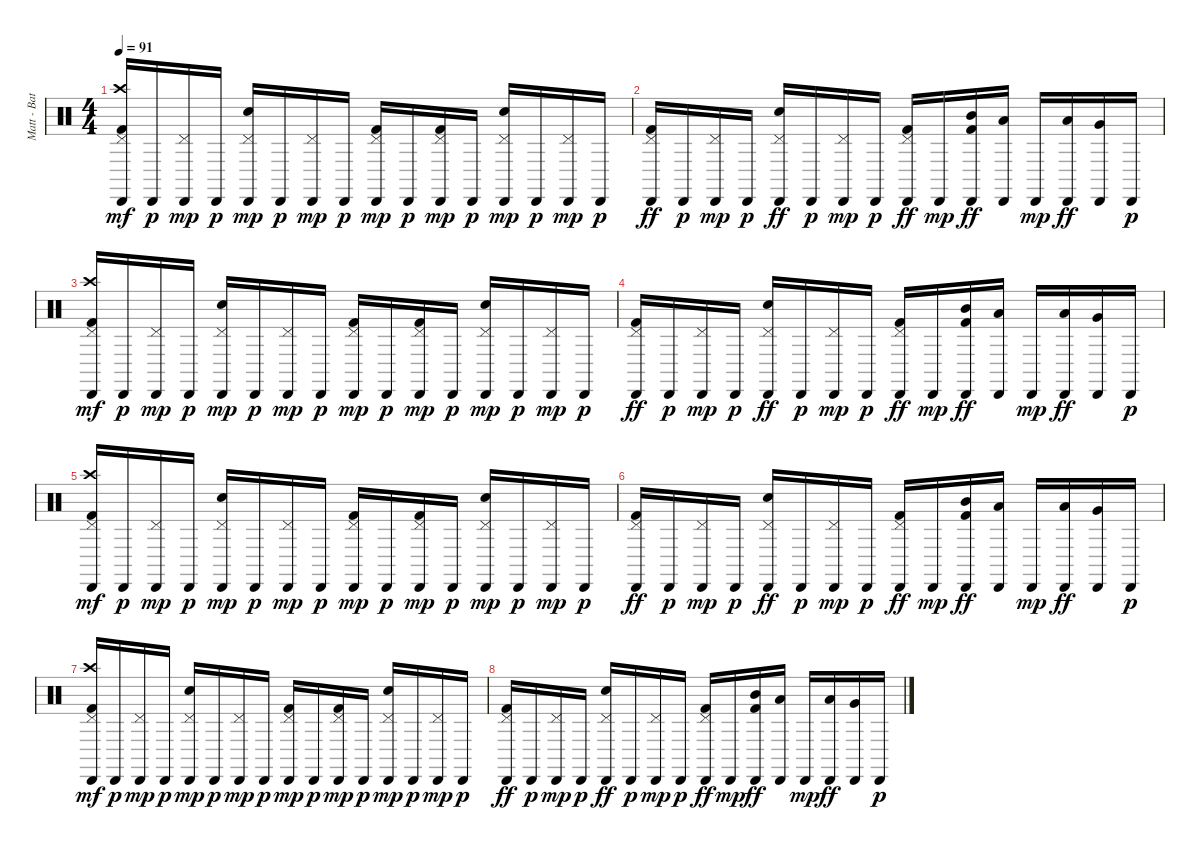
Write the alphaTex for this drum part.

\track ("Matt - Batería" "Matt - Bat") {instrument percussion}
\staff {score}
\articulation defaults
\ts (4 4)
\tempo 91
\clef neutral
\ks c
("Cabasa (hit)" "Crash high (hit)" "Pedal Hi-Hat (hit)" "Kick (hit) 2").16{dy mf} "Cabasa (hit)".16{dy p} ("Cabasa (hit)" "Pedal Hi-Hat (hit)").16{dy mp} "Cabasa (hit)".16{dy p} ("Cabasa (hit)" "Pedal Hi-Hat (hit)" "Snare (hit) 2").16{dy mp} "Cabasa (hit)".16{dy p} ("Cabasa (hit)" "Pedal Hi-Hat (hit)").16{dy mp} "Cabasa (hit)".16{dy p} ("Cabasa (hit)" "Pedal Hi-Hat (hit)" "Kick (hit) 2").16{dy mp} "Cabasa (hit)".16{dy p} ("Cabasa (hit)" "Pedal Hi-Hat (hit)" "Kick (hit) 2").16{dy mp} "Cabasa (hit)".16{dy p} ("Cabasa (hit)" "Pedal Hi-Hat (hit)" "Snare (hit) 2").16{dy mp} "Cabasa (hit)".16{dy p} ("Cabasa (hit)" "Pedal Hi-Hat (hit)").16{dy mp} "Cabasa (hit)".16{dy p} |
("Cabasa (hit)" "Pedal Hi-Hat (hit)" "Kick (hit) 2").16{dy ff} "Cabasa (hit)".16{dy p} ("Cabasa (hit)" "Pedal Hi-Hat (hit)").16{dy mp} "Cabasa (hit)".16{dy p} ("Cabasa (hit)" "Pedal Hi-Hat (hit)" "Snare (hit) 2").16{dy ff} "Cabasa (hit)".16{dy p} ("Cabasa (hit)" "Pedal Hi-Hat (hit)").16{dy mp} "Cabasa (hit)".16{dy p} ("Cabasa (hit)" "Pedal Hi-Hat (hit)" "Kick (hit) 2").16{dy ff} "Cabasa (hit)".16{dy mp} ("Cabasa (hit)" "Mid Tom (hit)" "Kick (hit) 2").16{dy ff} ("Cabasa (hit)" "Low Tom (hit)").16 "Cabasa (hit)".16{dy mp} ("Cabasa (hit)" "Low Tom (hit)").16{dy ff} ("Cabasa (hit)" "Very Low Tom (hit)").16 "Cabasa (hit)".16{dy p} |
("Cabasa (hit)" "Crash high (hit)" "Pedal Hi-Hat (hit)" "Kick (hit) 2").16{dy mf} "Cabasa (hit)".16{dy p} ("Cabasa (hit)" "Pedal Hi-Hat (hit)").16{dy mp} "Cabasa (hit)".16{dy p} ("Cabasa (hit)" "Pedal Hi-Hat (hit)" "Snare (hit) 2").16{dy mp} "Cabasa (hit)".16{dy p} ("Cabasa (hit)" "Pedal Hi-Hat (hit)").16{dy mp} "Cabasa (hit)".16{dy p} ("Cabasa (hit)" "Pedal Hi-Hat (hit)" "Kick (hit) 2").16{dy mp} "Cabasa (hit)".16{dy p} ("Cabasa (hit)" "Pedal Hi-Hat (hit)" "Kick (hit) 2").16{dy mp} "Cabasa (hit)".16{dy p} ("Cabasa (hit)" "Pedal Hi-Hat (hit)" "Snare (hit) 2").16{dy mp} "Cabasa (hit)".16{dy p} ("Cabasa (hit)" "Pedal Hi-Hat (hit)").16{dy mp} "Cabasa (hit)".16{dy p} |
("Cabasa (hit)" "Pedal Hi-Hat (hit)" "Kick (hit) 2").16{dy ff} "Cabasa (hit)".16{dy p} ("Cabasa (hit)" "Pedal Hi-Hat (hit)").16{dy mp} "Cabasa (hit)".16{dy p} ("Cabasa (hit)" "Pedal Hi-Hat (hit)" "Snare (hit) 2").16{dy ff} "Cabasa (hit)".16{dy p} ("Cabasa (hit)" "Pedal Hi-Hat (hit)").16{dy mp} "Cabasa (hit)".16{dy p} ("Cabasa (hit)" "Pedal Hi-Hat (hit)" "Kick (hit) 2").16{dy ff} "Cabasa (hit)".16{dy mp} ("Cabasa (hit)" "Mid Tom (hit)" "Kick (hit) 2").16{dy ff} ("Cabasa (hit)" "Low Tom (hit)").16 "Cabasa (hit)".16{dy mp} ("Cabasa (hit)" "Low Tom (hit)").16{dy ff} ("Cabasa (hit)" "Very Low Tom (hit)").16 "Cabasa (hit)".16{dy p} |
("Cabasa (hit)" "Crash high (hit)" "Pedal Hi-Hat (hit)" "Kick (hit) 2").16{dy mf} "Cabasa (hit)".16{dy p} ("Cabasa (hit)" "Pedal Hi-Hat (hit)").16{dy mp} "Cabasa (hit)".16{dy p} ("Cabasa (hit)" "Pedal Hi-Hat (hit)" "Snare (hit) 2").16{dy mp} "Cabasa (hit)".16{dy p} ("Cabasa (hit)" "Pedal Hi-Hat (hit)").16{dy mp} "Cabasa (hit)".16{dy p} ("Cabasa (hit)" "Pedal Hi-Hat (hit)" "Kick (hit) 2").16{dy mp} "Cabasa (hit)".16{dy p} ("Cabasa (hit)" "Pedal Hi-Hat (hit)" "Kick (hit) 2").16{dy mp} "Cabasa (hit)".16{dy p} ("Cabasa (hit)" "Pedal Hi-Hat (hit)" "Snare (hit) 2").16{dy mp} "Cabasa (hit)".16{dy p} ("Cabasa (hit)" "Pedal Hi-Hat (hit)").16{dy mp} "Cabasa (hit)".16{dy p} |
("Cabasa (hit)" "Pedal Hi-Hat (hit)" "Kick (hit) 2").16{dy ff} "Cabasa (hit)".16{dy p} ("Cabasa (hit)" "Pedal Hi-Hat (hit)").16{dy mp} "Cabasa (hit)".16{dy p} ("Cabasa (hit)" "Pedal Hi-Hat (hit)" "Snare (hit) 2").16{dy ff} "Cabasa (hit)".16{dy p} ("Cabasa (hit)" "Pedal Hi-Hat (hit)").16{dy mp} "Cabasa (hit)".16{dy p} ("Cabasa (hit)" "Pedal Hi-Hat (hit)" "Kick (hit) 2").16{dy ff} "Cabasa (hit)".16{dy mp} ("Cabasa (hit)" "Mid Tom (hit)" "Kick (hit) 2").16{dy ff} ("Cabasa (hit)" "Low Tom (hit)").16 "Cabasa (hit)".16{dy mp} ("Cabasa (hit)" "Low Tom (hit)").16{dy ff} ("Cabasa (hit)" "Very Low Tom (hit)").16 "Cabasa (hit)".16{dy p} |
("Cabasa (hit)" "Crash high (hit)" "Pedal Hi-Hat (hit)" "Kick (hit) 2").16{dy mf} "Cabasa (hit)".16{dy p} ("Cabasa (hit)" "Pedal Hi-Hat (hit)").16{dy mp} "Cabasa (hit)".16{dy p} ("Cabasa (hit)" "Pedal Hi-Hat (hit)" "Snare (hit) 2").16{dy mp} "Cabasa (hit)".16{dy p} ("Cabasa (hit)" "Pedal Hi-Hat (hit)").16{dy mp} "Cabasa (hit)".16{dy p} ("Cabasa (hit)" "Pedal Hi-Hat (hit)" "Kick (hit) 2").16{dy mp} "Cabasa (hit)".16{dy p} ("Cabasa (hit)" "Pedal Hi-Hat (hit)" "Kick (hit) 2").16{dy mp} "Cabasa (hit)".16{dy p} ("Cabasa (hit)" "Pedal Hi-Hat (hit)" "Snare (hit) 2").16{dy mp} "Cabasa (hit)".16{dy p} ("Cabasa (hit)" "Pedal Hi-Hat (hit)").16{dy mp} "Cabasa (hit)".16{dy p} |
("Cabasa (hit)" "Pedal Hi-Hat (hit)" "Kick (hit) 2").16{dy ff} "Cabasa (hit)".16{dy p} ("Cabasa (hit)" "Pedal Hi-Hat (hit)").16{dy mp} "Cabasa (hit)".16{dy p} ("Cabasa (hit)" "Pedal Hi-Hat (hit)" "Snare (hit) 2").16{dy ff} "Cabasa (hit)".16{dy p} ("Cabasa (hit)" "Pedal Hi-Hat (hit)").16{dy mp} "Cabasa (hit)".16{dy p} ("Cabasa (hit)" "Pedal Hi-Hat (hit)" "Kick (hit) 2").16{dy ff} "Cabasa (hit)".16{dy mp} ("Cabasa (hit)" "Mid Tom (hit)" "Kick (hit) 2").16{dy ff} ("Cabasa (hit)" "Low Tom (hit)").16 "Cabasa (hit)".16{dy mp} ("Cabasa (hit)" "Low Tom (hit)").16{dy ff} ("Cabasa (hit)" "Very Low Tom (hit)").16 "Cabasa (hit)".16{dy p}
